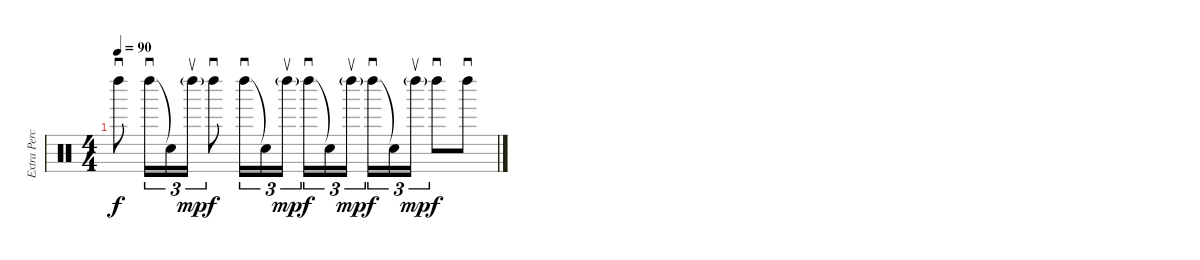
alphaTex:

\track ("Extra Percussion" "Extra Perc") {instrument percussion}
\staff {score}
\articulation defaults
\ts (4 4)
\tempo 90
\clef neutral
\ks c "Left Maraca (hit)".8{sd dy f} "Left Maraca (hit)".16{sd tu (3 2)} "Snare (hit)"{t}.16{tu (3 2)} "Left Maraca (hit)"{g}.16{su tu (3 2) dy mp} "Left Maraca (hit)".8{sd dy f} "Left Maraca (hit)".16{sd tu (3 2)} "Snare (hit)"{t}.16{tu (3 2)} "Left Maraca (hit)"{g}.16{su tu (3 2) dy mp} "Left Maraca (hit)".16{sd tu (3 2) dy f} "Snare (hit)"{t}.16{tu (3 2)} "Left Maraca (hit)"{g}.16{su tu (3 2) dy mp} "Left Maraca (hit)".16{sd tu (3 2) dy f} "Snare (hit)"{t}.16{tu (3 2)} "Left Maraca (hit)"{g}.16{su tu (3 2) dy mp} "Left Maraca (hit)".8{sd dy f} "Left Maraca (hit)".8{sd}
